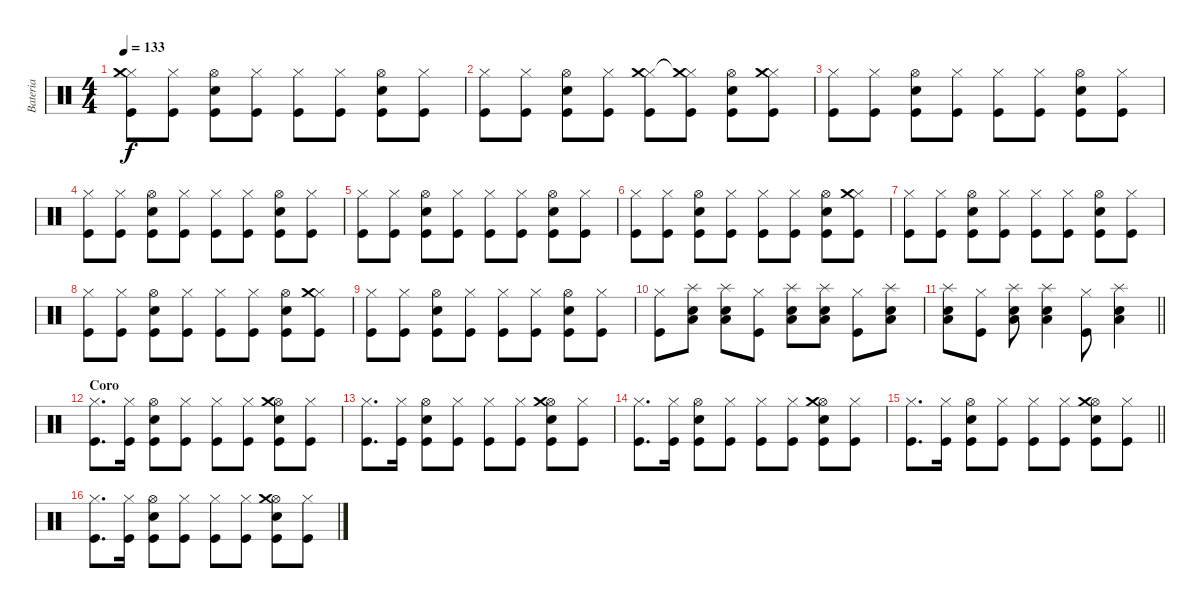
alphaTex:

\track ("Bateria" "Bateria") {instrument percussion}
\staff
\articulation defaults
\ts (4 4)
\tempo 133
\clef neutral
\ks c
("Hi-Hat (closed)" "Kick (hit)" "Crash medium (hit)").8{dy f} ("Hi-Hat (closed)" "Kick (hit)").8 ("Hi-Hat (open)" "Kick (hit)" "Snare (hit) 2").8 ("Hi-Hat (closed)" "Kick (hit)").8 ("Hi-Hat (closed)" "Kick (hit)").8 ("Hi-Hat (closed)" "Kick (hit)").8 ("Hi-Hat (open)" "Kick (hit)" "Snare (hit) 2").8 ("Hi-Hat (closed)" "Kick (hit)").8 |
("Hi-Hat (closed)" "Kick (hit)").8 ("Hi-Hat (closed)" "Kick (hit)").8 ("Hi-Hat (open)" "Kick (hit)" "Snare (hit) 2").8 ("Hi-Hat (closed)" "Kick (hit)").8 ("Hi-Hat (closed)" "Kick (hit)" "Crash medium (hit)").8 ("Hi-Hat (closed)" "Kick (hit)" "Crash medium (hit)"{t}).8 ("Hi-Hat (open)" "Kick (hit)" "Snare (hit) 2").8 ("Hi-Hat (closed)" "Kick (hit)" "Crash medium (hit)").8 |
("Hi-Hat (closed)" "Kick (hit)").8 ("Hi-Hat (closed)" "Kick (hit)").8 ("Hi-Hat (open)" "Kick (hit)" "Snare (hit) 2").8 ("Hi-Hat (closed)" "Kick (hit)").8 ("Hi-Hat (closed)" "Kick (hit)").8 ("Hi-Hat (closed)" "Kick (hit)").8 ("Hi-Hat (open)" "Kick (hit)" "Snare (hit) 2").8 ("Hi-Hat (closed)" "Kick (hit)").8 |
("Hi-Hat (closed)" "Kick (hit)").8 ("Hi-Hat (closed)" "Kick (hit)").8 ("Hi-Hat (open)" "Kick (hit)" "Snare (hit) 2").8 ("Hi-Hat (closed)" "Kick (hit)").8 ("Hi-Hat (closed)" "Kick (hit)").8 ("Hi-Hat (closed)" "Kick (hit)").8 ("Hi-Hat (open)" "Kick (hit)" "Snare (hit) 2").8 ("Hi-Hat (closed)" "Kick (hit)").8 |
("Hi-Hat (closed)" "Kick (hit)").8 ("Hi-Hat (closed)" "Kick (hit)").8 ("Hi-Hat (open)" "Kick (hit)" "Snare (hit) 2").8 ("Hi-Hat (closed)" "Kick (hit)").8 ("Hi-Hat (closed)" "Kick (hit)").8 ("Hi-Hat (closed)" "Kick (hit)").8 ("Hi-Hat (open)" "Kick (hit)" "Snare (hit) 2").8 ("Hi-Hat (closed)" "Kick (hit)").8 |
("Hi-Hat (closed)" "Kick (hit)").8 ("Hi-Hat (closed)" "Kick (hit)").8 ("Hi-Hat (open)" "Kick (hit)" "Snare (hit) 2").8 ("Hi-Hat (closed)" "Kick (hit)").8 ("Hi-Hat (closed)" "Kick (hit)").8 ("Hi-Hat (closed)" "Kick (hit)").8 ("Hi-Hat (open)" "Kick (hit)" "Snare (hit) 2").8 ("Hi-Hat (closed)" "Kick (hit)" "Crash medium (hit)").8 |
("Hi-Hat (closed)" "Kick (hit)").8 ("Hi-Hat (closed)" "Kick (hit)").8 ("Hi-Hat (open)" "Kick (hit)" "Snare (hit) 2").8 ("Hi-Hat (closed)" "Kick (hit)").8 ("Hi-Hat (closed)" "Kick (hit)").8 ("Hi-Hat (closed)" "Kick (hit)").8 ("Hi-Hat (open)" "Kick (hit)" "Snare (hit) 2").8 ("Hi-Hat (closed)" "Kick (hit)").8 |
("Hi-Hat (closed)" "Kick (hit)").8 ("Hi-Hat (closed)" "Kick (hit)").8 ("Hi-Hat (open)" "Kick (hit)" "Snare (hit) 2").8 ("Hi-Hat (closed)" "Kick (hit)").8 ("Hi-Hat (closed)" "Kick (hit)").8 ("Hi-Hat (closed)" "Kick (hit)").8 ("Hi-Hat (open)" "Kick (hit)" "Snare (hit) 2").8 ("Hi-Hat (closed)" "Kick (hit)" "Crash medium (hit)").8 |
("Hi-Hat (closed)" "Kick (hit)").8 ("Hi-Hat (closed)" "Kick (hit)").8 ("Hi-Hat (open)" "Kick (hit)" "Snare (hit) 2").8 ("Hi-Hat (closed)" "Kick (hit)").8 ("Hi-Hat (closed)" "Kick (hit)").8 ("Hi-Hat (closed)" "Kick (hit)").8 ("Hi-Hat (open)" "Kick (hit)" "Snare (hit) 2").8 ("Hi-Hat (closed)" "Kick (hit)").8 |
("Hi-Hat (closed)" "Kick (hit)").8 ("Low Floor Tom (hit)" "Electric Snare (hit)" "Splash (hit)").8 ("Low Floor Tom (hit)" "Electric Snare (hit)" "Splash (hit)").8 ("Hi-Hat (closed)" "Kick (hit)").8 ("Low Floor Tom (hit)" "Electric Snare (hit)" "Splash (hit)").8 ("Low Floor Tom (hit)" "Electric Snare (hit)" "Splash (hit)").8 ("Hi-Hat (closed)" "Kick (hit)").8 ("Low Floor Tom (hit)" "Electric Snare (hit)" "Splash (hit)").8 |
\barLineRight lightlight
("Low Floor Tom (hit)" "Electric Snare (hit)" "Splash (hit)").8 ("Hi-Hat (closed)" "Kick (hit)").8 ("Low Floor Tom (hit)" "Electric Snare (hit)" "Splash (hit)").8 ("Low Floor Tom (hit)" "Electric Snare (hit)" "Splash (hit)").4 ("Hi-Hat (closed)" "Kick (hit)").8 ("Low Floor Tom (hit)" "Electric Snare (hit)" "Splash (hit)").4 |
\section ("" "Coro")
("Hi-Hat (closed)" "Kick (hit)").8{d} ("Hi-Hat (closed)" "Kick (hit)").16 ("Hi-Hat (open)" "Kick (hit)" "Snare (hit) 2").8 ("Hi-Hat (closed)" "Kick (hit)").8 ("Hi-Hat (closed)" "Kick (hit)").8 ("Hi-Hat (closed)" "Kick (hit)").8 ("Hi-Hat (open)" "Kick (hit)" "Snare (hit) 2" "Crash medium (hit)").8 ("Hi-Hat (closed)" "Kick (hit)").8 |
("Hi-Hat (closed)" "Kick (hit)").8{d} ("Hi-Hat (closed)" "Kick (hit)").16 ("Hi-Hat (open)" "Kick (hit)" "Snare (hit) 2").8 ("Hi-Hat (closed)" "Kick (hit)").8 ("Hi-Hat (closed)" "Kick (hit)").8 ("Hi-Hat (closed)" "Kick (hit)").8 ("Hi-Hat (open)" "Kick (hit)" "Snare (hit) 2" "Crash medium (hit)").8 ("Hi-Hat (closed)" "Kick (hit)").8 |
("Hi-Hat (closed)" "Kick (hit)").8{d} ("Hi-Hat (closed)" "Kick (hit)").16 ("Hi-Hat (open)" "Kick (hit)" "Snare (hit) 2").8 ("Hi-Hat (closed)" "Kick (hit)").8 ("Hi-Hat (closed)" "Kick (hit)").8 ("Hi-Hat (closed)" "Kick (hit)").8 ("Hi-Hat (open)" "Kick (hit)" "Snare (hit) 2" "Crash medium (hit)").8 ("Hi-Hat (closed)" "Kick (hit)").8 |
\barLineRight lightlight
("Hi-Hat (closed)" "Kick (hit)").8{d} ("Hi-Hat (closed)" "Kick (hit)").16 ("Hi-Hat (open)" "Kick (hit)" "Snare (hit) 2").8 ("Hi-Hat (closed)" "Kick (hit)").8 ("Hi-Hat (closed)" "Kick (hit)").8 ("Hi-Hat (closed)" "Kick (hit)").8 ("Hi-Hat (open)" "Kick (hit)" "Snare (hit) 2" "Crash medium (hit)").8 ("Hi-Hat (closed)" "Kick (hit)").8 |
("Hi-Hat (closed)" "Kick (hit)").8{d} ("Hi-Hat (closed)" "Kick (hit)").16 ("Hi-Hat (open)" "Kick (hit)" "Snare (hit) 2").8 ("Hi-Hat (closed)" "Kick (hit)").8 ("Hi-Hat (closed)" "Kick (hit)").8 ("Hi-Hat (closed)" "Kick (hit)").8 ("Hi-Hat (open)" "Kick (hit)" "Snare (hit) 2" "Crash medium (hit)").8 ("Hi-Hat (closed)" "Kick (hit)").8
